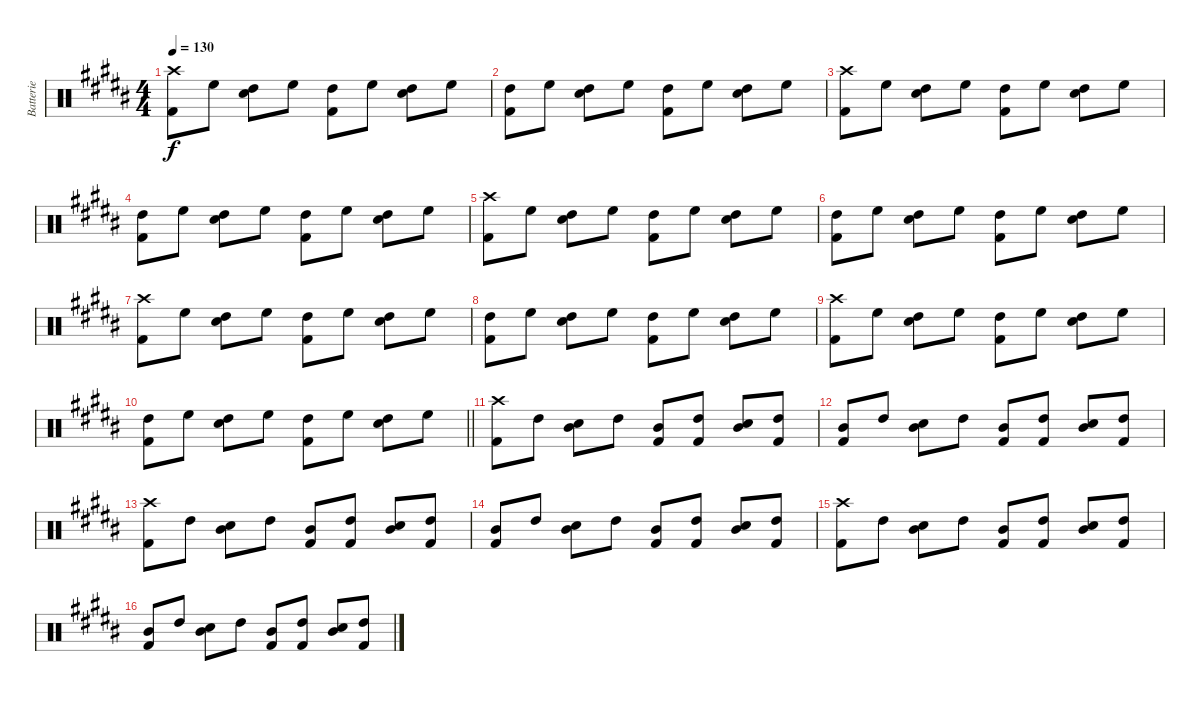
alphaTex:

\track ("Batterie" "Batterie") {instrument percussion}
\staff {score}
\articulation defaults
\ts (4 4)
\tempo 130
\clef neutral
\ks b
("Crash high (hit)" "Kick (hit) 2").8{dy f} "High Floor Tom (hit)".8 ("High Tom (hit)" "Snare (hit) 2").8 "High Floor Tom (hit)".8 ("High Tom (hit)" "Kick (hit) 2").8 "High Floor Tom (hit)".8 ("High Tom (hit)" "Snare (hit) 2").8 "High Floor Tom (hit)".8 |
("High Tom (hit)" "Kick (hit) 2").8 "High Floor Tom (hit)".8 ("High Tom (hit)" "Snare (hit) 2").8 "High Floor Tom (hit)".8 ("High Tom (hit)" "Kick (hit) 2").8 "High Floor Tom (hit)".8 ("High Tom (hit)" "Snare (hit) 2").8 "High Floor Tom (hit)".8 |
("Crash high (hit)" "Kick (hit) 2").8 "High Floor Tom (hit)".8 ("High Tom (hit)" "Snare (hit) 2").8 "High Floor Tom (hit)".8 ("High Tom (hit)" "Kick (hit) 2").8 "High Floor Tom (hit)".8 ("High Tom (hit)" "Snare (hit) 2").8 "High Floor Tom (hit)".8 |
("High Tom (hit)" "Kick (hit) 2").8 "High Floor Tom (hit)".8 ("High Tom (hit)" "Snare (hit) 2").8 "High Floor Tom (hit)".8 ("High Tom (hit)" "Kick (hit) 2").8 "High Floor Tom (hit)".8 ("High Tom (hit)" "Snare (hit) 2").8 "High Floor Tom (hit)".8 |
("Crash high (hit)" "Kick (hit) 2").8 "High Floor Tom (hit)".8 ("High Tom (hit)" "Snare (hit) 2").8 "High Floor Tom (hit)".8 ("High Tom (hit)" "Kick (hit) 2").8 "High Floor Tom (hit)".8 ("High Tom (hit)" "Snare (hit) 2").8 "High Floor Tom (hit)".8 |
("High Tom (hit)" "Kick (hit) 2").8 "High Floor Tom (hit)".8 ("High Tom (hit)" "Snare (hit) 2").8 "High Floor Tom (hit)".8 ("High Tom (hit)" "Kick (hit) 2").8 "High Floor Tom (hit)".8 ("High Tom (hit)" "Snare (hit) 2").8 "High Floor Tom (hit)".8 |
("Crash high (hit)" "Kick (hit) 2").8 "High Floor Tom (hit)".8 ("High Tom (hit)" "Snare (hit) 2").8 "High Floor Tom (hit)".8 ("High Tom (hit)" "Kick (hit) 2").8 "High Floor Tom (hit)".8 ("High Tom (hit)" "Snare (hit) 2").8 "High Floor Tom (hit)".8 |
("High Tom (hit)" "Kick (hit) 2").8 "High Floor Tom (hit)".8 ("High Tom (hit)" "Snare (hit) 2").8 "High Floor Tom (hit)".8 ("High Tom (hit)" "Kick (hit) 2").8 "High Floor Tom (hit)".8 ("High Tom (hit)" "Snare (hit) 2").8 "High Floor Tom (hit)".8 |
("Crash high (hit)" "Kick (hit) 2").8 "High Floor Tom (hit)".8 ("High Tom (hit)" "Snare (hit) 2").8 "High Floor Tom (hit)".8 ("High Tom (hit)" "Kick (hit) 2").8 "High Floor Tom (hit)".8 ("High Tom (hit)" "Snare (hit) 2").8 "High Floor Tom (hit)".8 |
\barLineRight lightlight
("High Tom (hit)" "Kick (hit) 2").8 "High Floor Tom (hit)".8 ("High Tom (hit)" "Snare (hit) 2").8 "High Floor Tom (hit)".8 ("High Tom (hit)" "Kick (hit) 2").8 "High Floor Tom (hit)".8 ("High Tom (hit)" "Snare (hit) 2").8 "High Floor Tom (hit)".8 |
("Crash high (hit)" "Kick (hit) 2").8 "High Tom (hit)".8 ("Mid Tom (hit)" "Snare (hit) 2").8 "High Tom (hit)".8 ("Mid Tom (hit)" "Kick (hit) 2").8 ("High Tom (hit)" "Kick (hit) 2").8 ("Mid Tom (hit)" "Snare (hit) 2").8 ("High Tom (hit)" "Kick (hit) 2").8 |
("Mid Tom (hit)" "Kick (hit) 2").8 "High Tom (hit)".8 ("Mid Tom (hit)" "Snare (hit) 2").8 "High Tom (hit)".8 ("Mid Tom (hit)" "Kick (hit) 2").8 ("High Tom (hit)" "Kick (hit) 2").8 ("Mid Tom (hit)" "Snare (hit) 2").8 ("High Tom (hit)" "Kick (hit) 2").8 |
("Crash high (hit)" "Kick (hit) 2").8 "High Tom (hit)".8 ("Mid Tom (hit)" "Snare (hit) 2").8 "High Tom (hit)".8 ("Mid Tom (hit)" "Kick (hit) 2").8 ("High Tom (hit)" "Kick (hit) 2").8 ("Mid Tom (hit)" "Snare (hit) 2").8 ("High Tom (hit)" "Kick (hit) 2").8 |
("Mid Tom (hit)" "Kick (hit) 2").8 "High Tom (hit)".8 ("Mid Tom (hit)" "Snare (hit) 2").8 "High Tom (hit)".8 ("Mid Tom (hit)" "Kick (hit) 2").8 ("High Tom (hit)" "Kick (hit) 2").8 ("Mid Tom (hit)" "Snare (hit) 2").8 ("High Tom (hit)" "Kick (hit) 2").8 |
("Crash high (hit)" "Kick (hit) 2").8 "High Tom (hit)".8 ("Mid Tom (hit)" "Snare (hit) 2").8 "High Tom (hit)".8 ("Mid Tom (hit)" "Kick (hit) 2").8 ("High Tom (hit)" "Kick (hit) 2").8 ("Mid Tom (hit)" "Snare (hit) 2").8 ("High Tom (hit)" "Kick (hit) 2").8 |
("Mid Tom (hit)" "Kick (hit) 2").8 "High Tom (hit)".8 ("Mid Tom (hit)" "Snare (hit) 2").8 "High Tom (hit)".8 ("Mid Tom (hit)" "Kick (hit) 2").8 ("High Tom (hit)" "Kick (hit) 2").8 ("Mid Tom (hit)" "Snare (hit) 2").8 ("High Tom (hit)" "Kick (hit) 2").8
